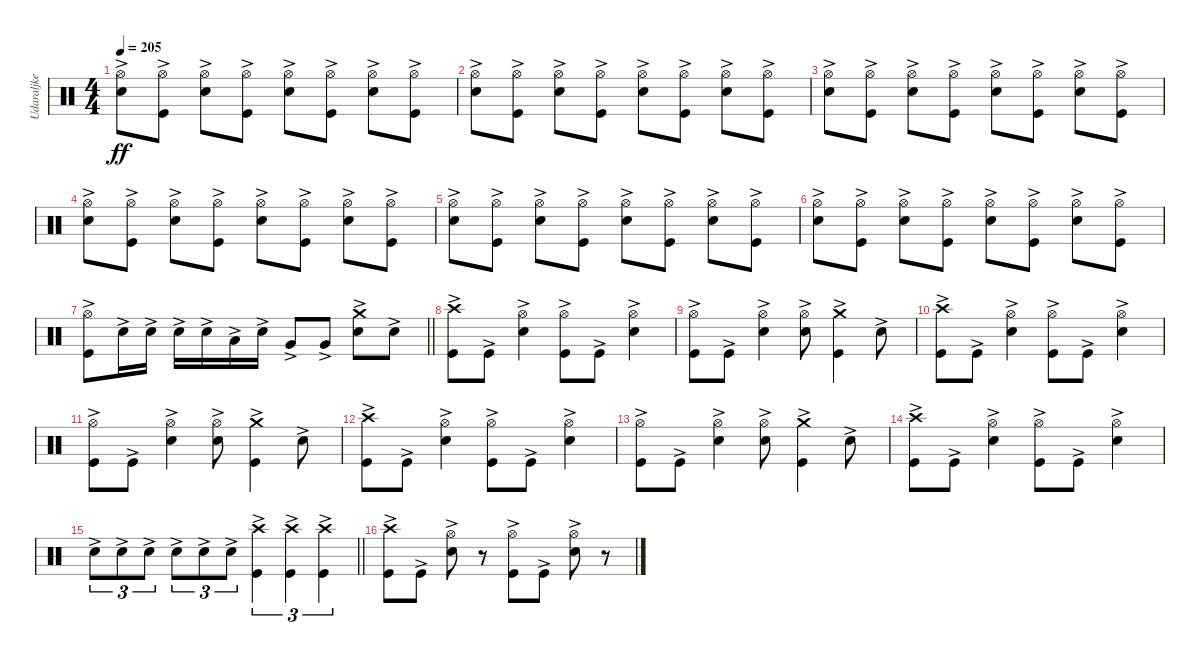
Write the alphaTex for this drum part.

\track ("Udaraljke" "Udaraljke") {instrument percussion}
\staff {score}
\articulation defaults
\ts (4 4)
\tempo 205
\clef neutral
\ks c
("Snare (hit) 2"{ac} "Hi-Hat (open)").8{dy ff} ("Kick (hit)"{ac} "Hi-Hat (open)").8 ("Snare (hit) 2"{ac} "Hi-Hat (open)").8 ("Kick (hit)"{ac} "Hi-Hat (open)").8 ("Snare (hit) 2"{ac} "Hi-Hat (open)").8 ("Kick (hit)"{ac} "Hi-Hat (open)").8 ("Snare (hit) 2"{ac} "Hi-Hat (open)").8 ("Kick (hit)"{ac} "Hi-Hat (open)").8 |
("Snare (hit) 2"{ac} "Hi-Hat (open)").8 ("Kick (hit)"{ac} "Hi-Hat (open)").8 ("Snare (hit) 2"{ac} "Hi-Hat (open)").8 ("Kick (hit)"{ac} "Hi-Hat (open)").8 ("Snare (hit) 2"{ac} "Hi-Hat (open)").8 ("Kick (hit)"{ac} "Hi-Hat (open)").8 ("Snare (hit) 2"{ac} "Hi-Hat (open)").8 ("Kick (hit)"{ac} "Hi-Hat (open)").8 |
("Snare (hit) 2"{ac} "Hi-Hat (open)").8 ("Kick (hit)"{ac} "Hi-Hat (open)").8 ("Snare (hit) 2"{ac} "Hi-Hat (open)").8 ("Kick (hit)"{ac} "Hi-Hat (open)").8 ("Snare (hit) 2"{ac} "Hi-Hat (open)").8 ("Kick (hit)"{ac} "Hi-Hat (open)").8 ("Snare (hit) 2"{ac} "Hi-Hat (open)").8 ("Kick (hit)"{ac} "Hi-Hat (open)").8 |
("Snare (hit) 2"{ac} "Hi-Hat (open)").8 ("Kick (hit)"{ac} "Hi-Hat (open)").8 ("Snare (hit) 2"{ac} "Hi-Hat (open)").8 ("Kick (hit)"{ac} "Hi-Hat (open)").8 ("Snare (hit) 2"{ac} "Hi-Hat (open)").8 ("Kick (hit)"{ac} "Hi-Hat (open)").8 ("Snare (hit) 2"{ac} "Hi-Hat (open)").8 ("Kick (hit)"{ac} "Hi-Hat (open)").8 |
("Snare (hit) 2"{ac} "Hi-Hat (open)").8 ("Kick (hit)"{ac} "Hi-Hat (open)").8 ("Snare (hit) 2"{ac} "Hi-Hat (open)").8 ("Kick (hit)"{ac} "Hi-Hat (open)").8 ("Snare (hit) 2"{ac} "Hi-Hat (open)").8 ("Kick (hit)"{ac} "Hi-Hat (open)").8 ("Snare (hit) 2"{ac} "Hi-Hat (open)").8 ("Kick (hit)"{ac} "Hi-Hat (open)").8 |
("Snare (hit) 2"{ac} "Hi-Hat (open)").8 ("Kick (hit)"{ac} "Hi-Hat (open)").8 ("Snare (hit) 2"{ac} "Hi-Hat (open)").8 ("Kick (hit)"{ac} "Hi-Hat (open)").8 ("Snare (hit) 2"{ac} "Hi-Hat (open)").8 ("Kick (hit)"{ac} "Hi-Hat (open)").8 ("Snare (hit) 2"{ac} "Hi-Hat (open)").8 ("Kick (hit)"{ac} "Hi-Hat (open)").8 |
\barLineRight lightlight
("Kick (hit)"{ac} "Hi-Hat (open)").8 "Snare (hit) 2"{ac}.16 "Snare (hit) 2"{ac}.16 "Snare (hit) 2"{ac}.16 "Snare (hit) 2"{ac}.16 "Low Tom (hit)"{ac}.16 "Snare (hit) 2"{ac}.16 "Very Low Tom (hit)"{ac}.8 "Very Low Tom (hit)"{ac}.8 ("Snare (hit) 2"{ac} "Crash medium (hit)").8 "Snare (hit) 2"{ac}.8 |
\section ("" "")
("Kick (hit)"{ac} "Crash high (hit)").8 "Kick (hit)"{ac}.8 ("Snare (hit) 2"{ac} "Hi-Hat (open)").4 ("Kick (hit)"{ac} "Hi-Hat (open)").8 "Kick (hit)"{ac}.8 ("Snare (hit) 2"{ac} "Hi-Hat (open)").4 |
("Kick (hit)"{ac} "Hi-Hat (open)").8 "Kick (hit)"{ac}.8 ("Snare (hit) 2"{ac} "Hi-Hat (open)").4 ("Snare (hit) 2"{ac} "Hi-Hat (open)").8 ("Kick (hit)"{ac} "Crash medium (hit)").4 "Snare (hit) 2"{ac}.8 |
("Kick (hit)"{ac} "Crash high (hit)").8 "Kick (hit)"{ac}.8 ("Snare (hit) 2"{ac} "Hi-Hat (open)").4 ("Kick (hit)"{ac} "Hi-Hat (open)").8 "Kick (hit)"{ac}.8 ("Snare (hit) 2"{ac} "Hi-Hat (open)").4 |
("Kick (hit)"{ac} "Hi-Hat (open)").8 "Kick (hit)"{ac}.8 ("Snare (hit) 2"{ac} "Hi-Hat (open)").4 ("Snare (hit) 2"{ac} "Hi-Hat (open)").8 ("Kick (hit)"{ac} "Crash medium (hit)").4 "Snare (hit) 2"{ac}.8 |
("Kick (hit)"{ac} "Crash high (hit)").8 "Kick (hit)"{ac}.8 ("Snare (hit) 2"{ac} "Hi-Hat (open)").4 ("Kick (hit)"{ac} "Hi-Hat (open)").8 "Kick (hit)"{ac}.8 ("Snare (hit) 2"{ac} "Hi-Hat (open)").4 |
("Kick (hit)"{ac} "Hi-Hat (open)").8 "Kick (hit)"{ac}.8 ("Snare (hit) 2"{ac} "Hi-Hat (open)").4 ("Snare (hit) 2"{ac} "Hi-Hat (open)").8 ("Kick (hit)"{ac} "Crash medium (hit)").4 "Snare (hit) 2"{ac}.8 |
("Kick (hit)"{ac} "Crash high (hit)").8 "Kick (hit)"{ac}.8 ("Snare (hit) 2"{ac} "Hi-Hat (open)").4 ("Kick (hit)"{ac} "Hi-Hat (open)").8 "Kick (hit)"{ac}.8 ("Snare (hit) 2"{ac} "Hi-Hat (open)").4 |
\barLineRight lightlight "Snare (hit) 2"{ac}.8{tu (3 2)} "Snare (hit) 2"{ac}.8{tu (3 2)} "Snare (hit) 2"{ac}.8{tu (3 2)} "Snare (hit) 2"{ac}.8{tu (3 2)} "Snare (hit) 2"{ac}.8{tu (3 2)} "Snare (hit) 2"{ac}.8{tu (3 2)}
("Kick (hit)"{ac} "Crash high (hit)").4{tu (3 2)} ("Kick (hit)"{ac} "Crash high (hit)").4{tu (3 2)} ("Kick (hit)"{ac} "Crash high (hit)").4{tu (3 2)} |
\section ("" "")
("Kick (hit)"{ac} "Crash high (hit)").8 "Kick (hit)"{ac}.8 ("Hi-Hat (open)" "Snare (hit) 2"{ac}).8 r.8 ("Hi-Hat (open)" "Kick (hit)"{ac}).8 "Kick (hit)"{ac}.8 ("Hi-Hat (open)" "Snare (hit) 2"{ac}).8 r.8
